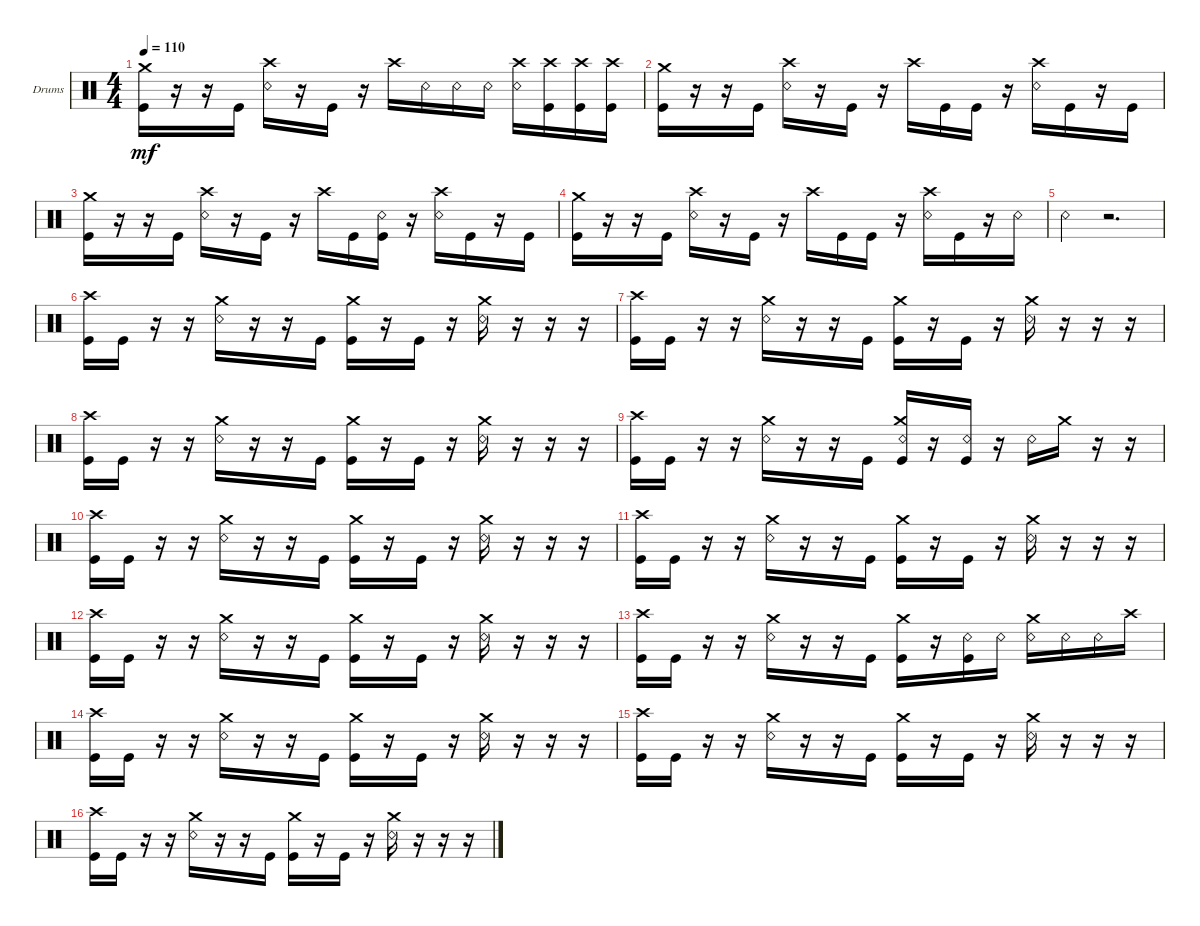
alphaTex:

\defaultSystemsLayout 4
\bracketExtendMode groupsimilarinstruments
\firstSystemTrackNameOrientation horizontal
\otherSystemsTrackNameOrientation horizontal
\track ("Drumkit" "Drums") {instrument percussion}
\staff {score}
\articulation defaults
\ts (4 4)
\tempo 110
\clef neutral
\ks c
("Kick (hit)" "Crash medium (hit)").16{dy mf} r.16 r.16 "Kick (hit)".16 ("Snare (rim shot)" "Crash high (hit)").16 r.16 "Kick (hit)".16 r.16 "Crash high (hit)".16 "Snare (rim shot)".16 "Snare (rim shot)".16 "Snare (rim shot)".16 ("Snare (rim shot)" "Crash high (hit)").16 ("Kick (hit)" "Crash high (hit)").16 ("Crash high (hit)" "Kick (hit)").16 ("Kick (hit)" "Crash high (hit)").16 |
("Kick (hit)" "Crash medium (hit)").16 r.16 r.16 "Kick (hit)".16 ("Snare (rim shot)" "Crash high (hit)").16 r.16 "Kick (hit)".16 r.16 "Crash high (hit)".16 "Kick (hit)".16 "Kick (hit)".16 r.16 ("Snare (rim shot)" "Crash high (hit)").16 "Kick (hit)".16 r.16 "Kick (hit)".16 |
("Kick (hit)" "Crash medium (hit)").16 r.16 r.16 "Kick (hit)".16 ("Snare (rim shot)" "Crash high (hit)").16 r.16 "Kick (hit)".16 r.16 "Crash high (hit)".16 "Kick (hit)".16 ("Kick (hit)" "Snare (rim shot)").16 r.16 ("Snare (rim shot)" "Crash high (hit)").16 "Kick (hit)".16 r.16 "Kick (hit)".16 |
("Kick (hit)" "Crash medium (hit)").16 r.16 r.16 "Kick (hit)".16 ("Snare (rim shot)" "Crash high (hit)").16 r.16 "Kick (hit)".16 r.16 "Crash high (hit)".16 "Kick (hit)".16 "Kick (hit)".16 r.16 ("Snare (rim shot)" "Crash high (hit)").16 "Kick (hit)".16 r.16 "Snare (rim shot)".16 |
"Snare (rim shot)".4 r.2{d} |
("Kick (hit)" "Crash high (hit)").16 "Kick (hit)".16 r.16 r.16 ("Snare (rim shot)" "Crash medium (hit)").16 r.16 r.16 "Kick (hit)".16 ("Kick (hit)" "Crash medium (hit)").16 r.16 "Kick (hit)".16 r.16 ("Snare (rim shot)" "Crash medium (hit)").16 r.16 r.16 r.16 |
("Kick (hit)" "Crash high (hit)").16 "Kick (hit)".16 r.16 r.16 ("Snare (rim shot)" "Crash medium (hit)").16 r.16 r.16 "Kick (hit)".16 ("Kick (hit)" "Crash medium (hit)").16 r.16 "Kick (hit)".16 r.16 ("Snare (rim shot)" "Crash medium (hit)").16 r.16 r.16 r.16 |
("Kick (hit)" "Crash high (hit)").16 "Kick (hit)".16 r.16 r.16 ("Snare (rim shot)" "Crash medium (hit)").16 r.16 r.16 "Kick (hit)".16 ("Kick (hit)" "Crash medium (hit)").16 r.16 "Kick (hit)".16 r.16 ("Snare (rim shot)" "Crash medium (hit)").16 r.16 r.16 r.16 |
("Kick (hit)" "Crash high (hit)").16 "Kick (hit)".16 r.16 r.16 ("Snare (rim shot)" "Crash medium (hit)").16 r.16 r.16 "Kick (hit)".16 ("Kick (hit)" "Crash medium (hit)" "Snare (rim shot)").16 r.16 ("Kick (hit)" "Snare (rim shot)").16 r.16 "Snare (rim shot)".16 "Crash medium (hit)".16 r.16 r.16 |
("Kick (hit)" "Crash high (hit)").16 "Kick (hit)".16 r.16 r.16 ("Snare (rim shot)" "Crash medium (hit)").16 r.16 r.16 "Kick (hit)".16 ("Kick (hit)" "Crash medium (hit)").16 r.16 "Kick (hit)".16 r.16 ("Snare (rim shot)" "Crash medium (hit)").16 r.16 r.16 r.16 |
("Kick (hit)" "Crash high (hit)").16 "Kick (hit)".16 r.16 r.16 ("Snare (rim shot)" "Crash medium (hit)").16 r.16 r.16 "Kick (hit)".16 ("Kick (hit)" "Crash medium (hit)").16 r.16 "Kick (hit)".16 r.16 ("Snare (rim shot)" "Crash medium (hit)").16 r.16 r.16 r.16 |
("Kick (hit)" "Crash high (hit)").16 "Kick (hit)".16 r.16 r.16 ("Snare (rim shot)" "Crash medium (hit)").16 r.16 r.16 "Kick (hit)".16 ("Kick (hit)" "Crash medium (hit)").16 r.16 "Kick (hit)".16 r.16 ("Snare (rim shot)" "Crash medium (hit)").16 r.16 r.16 r.16 |
("Kick (hit)" "Crash high (hit)").16 "Kick (hit)".16 r.16 r.16 ("Snare (rim shot)" "Crash medium (hit)").16 r.16 r.16 "Kick (hit)".16 ("Kick (hit)" "Crash medium (hit)").16 r.16 ("Kick (hit)" "Snare (rim shot)").16 "Snare (rim shot)".16 ("Snare (rim shot)" "Crash medium (hit)").16 "Snare (rim shot)".16 "Snare (rim shot)".16 "Crash high (hit)".16 |
("Kick (hit)" "Crash high (hit)").16 "Kick (hit)".16 r.16 r.16 ("Snare (rim shot)" "Crash medium (hit)").16 r.16 r.16 "Kick (hit)".16 ("Kick (hit)" "Crash medium (hit)").16 r.16 "Kick (hit)".16 r.16 ("Snare (rim shot)" "Crash medium (hit)").16 r.16 r.16 r.16 |
("Kick (hit)" "Crash high (hit)").16 "Kick (hit)".16 r.16 r.16 ("Snare (rim shot)" "Crash medium (hit)").16 r.16 r.16 "Kick (hit)".16 ("Kick (hit)" "Crash medium (hit)").16 r.16 "Kick (hit)".16 r.16 ("Snare (rim shot)" "Crash medium (hit)").16 r.16 r.16 r.16 |
("Kick (hit)" "Crash high (hit)").16 "Kick (hit)".16 r.16 r.16 ("Snare (rim shot)" "Crash medium (hit)").16 r.16 r.16 "Kick (hit)".16 ("Kick (hit)" "Crash medium (hit)").16 r.16 "Kick (hit)".16 r.16 ("Snare (rim shot)" "Crash medium (hit)").16 r.16 r.16 r.16
